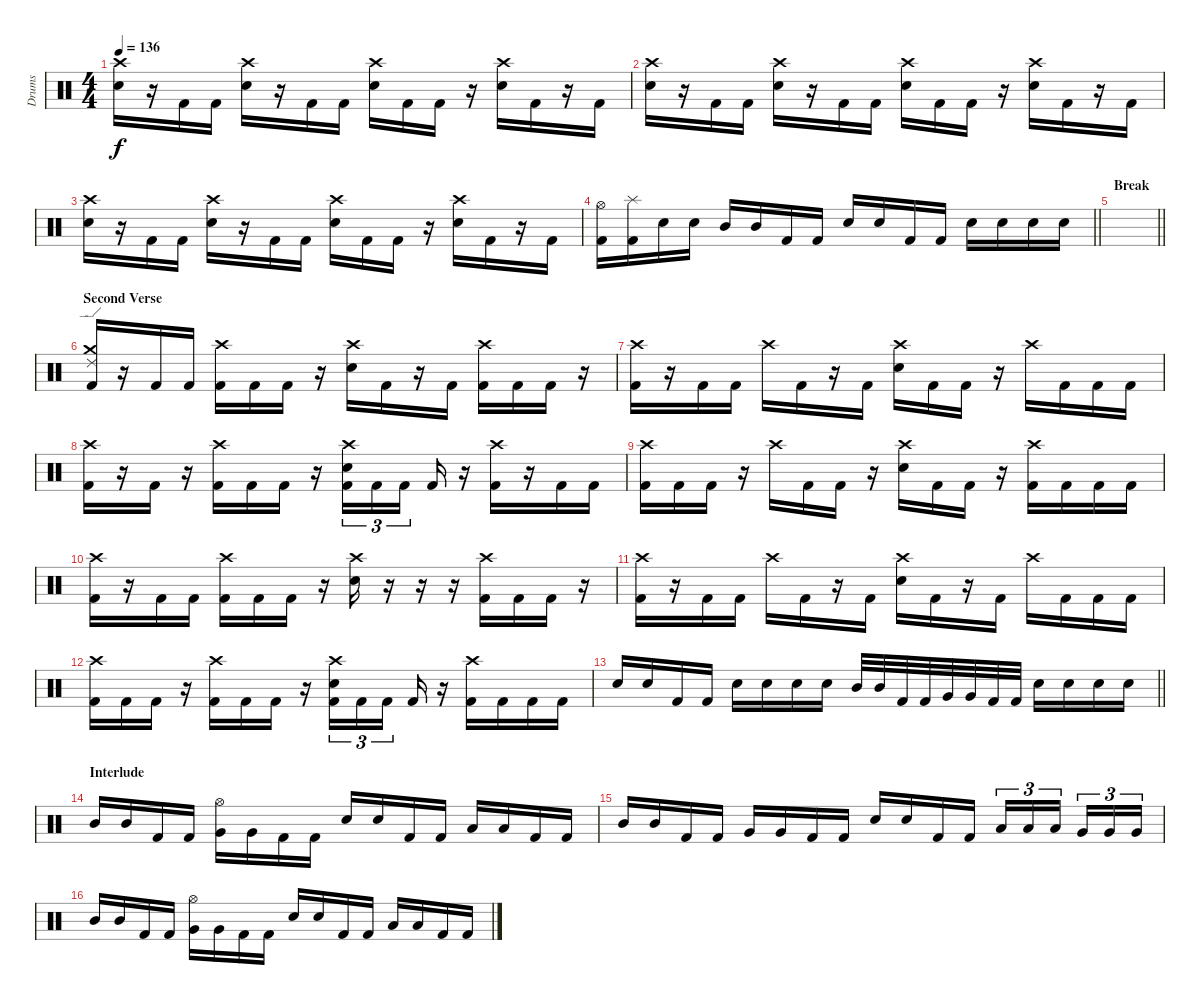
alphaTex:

\track ("Drums" "Drums") {instrument percussion}
\staff {score}
\articulation defaults
\ts (4 4)
\tempo 136
\clef neutral
\ks c
("Crash high (hit)" "Electric Snare (hit)").16{dy f} r.16 "Kick (hit) 2".16 "Kick (hit) 2".16 ("Crash high (hit)" "Electric Snare (hit)").16 r.16 "Kick (hit) 2".16 "Kick (hit) 2".16 ("Crash high (hit)" "Electric Snare (hit)").16 "Kick (hit) 2".16 "Kick (hit) 2".16 r.16 ("Crash high (hit)" "Electric Snare (hit)").16 "Kick (hit) 2".16 r.16 "Kick (hit) 2".16 |
("Crash high (hit)" "Electric Snare (hit)").16 r.16 "Kick (hit) 2".16 "Kick (hit) 2".16 ("Crash high (hit)" "Electric Snare (hit)").16 r.16 "Kick (hit) 2".16 "Kick (hit) 2".16 ("Crash high (hit)" "Electric Snare (hit)").16 "Kick (hit) 2".16 "Kick (hit) 2".16 r.16 ("Crash high (hit)" "Electric Snare (hit)").16 "Kick (hit) 2".16 r.16 "Kick (hit) 2".16 |
("Crash high (hit)" "Electric Snare (hit)").16 r.16 "Kick (hit) 2".16 "Kick (hit) 2".16 ("Crash high (hit)" "Electric Snare (hit)").16 r.16 "Kick (hit) 2".16 "Kick (hit) 2".16 ("Crash high (hit)" "Electric Snare (hit)").16 "Kick (hit) 2".16 "Kick (hit) 2".16 r.16 ("Crash high (hit)" "Electric Snare (hit)").16 "Kick (hit) 2".16 r.16 "Kick (hit) 2".16 |
\barLineRight lightlight
("Hi-Hat (open)" "Kick (hit) 2").16 ("Splash (hit)" "Kick (hit) 2").16 "Electric Snare (hit)".16 "Electric Snare (hit)".16 "Mid Tom (hit)".16 "Mid Tom (hit)".16 "Kick (hit) 2".16 "Kick (hit) 2".16 "Electric Snare (hit)".16 "Electric Snare (hit)".16 "Kick (hit) 2".16 "Kick (hit) 2".16 "Electric Snare (hit)".16 "Electric Snare (hit)".16 "Electric Snare (hit)".16 "Electric Snare (hit)".16 |
\section ("" "Break")
\barLineRight lightlight
|
\section ("" "Second Verse")
("Crash medium (hit)" "Ride (edge) 2" "Kick (hit) 2").16 r.16 "Kick (hit) 2".16 "Kick (hit) 2".16 ("Crash high (hit)" "Kick (hit) 2").16 "Kick (hit) 2".16 "Kick (hit) 2".16 r.16 ("Crash high (hit)" "Electric Snare (hit)").16 "Kick (hit) 2".16 r.16 "Kick (hit) 2".16 ("Crash high (hit)" "Kick (hit) 2").16 "Kick (hit) 2".16 "Kick (hit) 2".16 r.16 |
("Crash high (hit)" "Kick (hit) 2").16 r.16 "Kick (hit) 2".16 "Kick (hit) 2".16 "Crash high (hit)".16 "Kick (hit) 2".16 r.16 "Kick (hit) 2".16 ("Crash high (hit)" "Electric Snare (hit)").16 "Kick (hit) 2".16 "Kick (hit) 2".16 r.16 "Crash high (hit)".16 "Kick (hit) 2".16 "Kick (hit) 2".16 "Kick (hit) 2".16 |
("Crash high (hit)" "Kick (hit) 2").16 r.16 "Kick (hit) 2".16 r.16 ("Crash high (hit)" "Kick (hit) 2").16 "Kick (hit) 2".16 "Kick (hit) 2".16 r.16 ("Crash high (hit)" "Electric Snare (hit)" "Kick (hit) 2").16{tu (3 2)} "Kick (hit) 2".16{tu (3 2)} "Kick (hit) 2".16{tu (3 2) beam splitsecondary} "Kick (hit) 2".16 r.16 ("Crash high (hit)" "Kick (hit) 2").16 r.16 "Kick (hit) 2".16 "Kick (hit) 2".16 |
("Crash high (hit)" "Kick (hit) 2").16 "Kick (hit) 2".16 "Kick (hit) 2".16 r.16 "Crash high (hit)".16 "Kick (hit) 2".16 "Kick (hit) 2".16 r.16 ("Crash high (hit)" "Electric Snare (hit)").16 "Kick (hit) 2".16 "Kick (hit) 2".16 r.16 ("Crash high (hit)" "Kick (hit) 2").16 "Kick (hit) 2".16 "Kick (hit) 2".16 "Kick (hit) 2".16 |
("Crash high (hit)" "Kick (hit) 2").16 r.16 "Kick (hit) 2".16 "Kick (hit) 2".16 ("Crash high (hit)" "Kick (hit) 2").16 "Kick (hit) 2".16 "Kick (hit) 2".16 r.16 ("Crash high (hit)" "Electric Snare (hit)").16 r.16 r.16 r.16 ("Crash high (hit)" "Kick (hit) 2").16 "Kick (hit) 2".16 "Kick (hit) 2".16 r.16 |
("Crash high (hit)" "Kick (hit) 2").16 r.16 "Kick (hit) 2".16 "Kick (hit) 2".16 "Crash high (hit)".16 "Kick (hit) 2".16 r.16 "Kick (hit) 2".16 ("Crash high (hit)" "Electric Snare (hit)").16 "Kick (hit) 2".16 r.16 "Kick (hit) 2".16 "Crash high (hit)".16 "Kick (hit) 2".16 "Kick (hit) 2".16 "Kick (hit) 2".16 |
("Crash high (hit)" "Kick (hit) 2").16 "Kick (hit) 2".16 "Kick (hit) 2".16 r.16 ("Crash high (hit)" "Kick (hit) 2").16 "Kick (hit) 2".16 "Kick (hit) 2".16 r.16 ("Crash high (hit)" "Electric Snare (hit)" "Kick (hit) 2").16{tu (3 2)} "Kick (hit) 2".16{tu (3 2)} "Kick (hit) 2".16{tu (3 2) beam splitsecondary} "Kick (hit) 2".16 r.16 ("Crash high (hit)" "Kick (hit) 2").16 "Kick (hit) 2".16 "Kick (hit) 2".16 "Kick (hit) 2".16 |
\barLineRight lightlight "Electric Snare (hit)".16 "Electric Snare (hit)".16 "Kick (hit) 2".16 "Kick (hit) 2".16 "Electric Snare (hit)".16 "Electric Snare (hit)".16 "Electric Snare (hit)".16 "Electric Snare (hit)".16 "Mid Tom (hit)".32 "Mid Tom (hit)".32 "Kick (hit) 2".32 "Kick (hit) 2".32 "Very Low Tom (hit)".32 "Very Low Tom (hit)".32 "Kick (hit) 2".32 "Kick (hit) 2".32 "Electric Snare (hit)".16 "Electric Snare (hit)".16 "Electric Snare (hit)".16 "Electric Snare (hit)".16
|
\section ("" "Interlude ")
"Mid Tom (hit)".16 "Mid Tom (hit)".16 "Kick (hit) 2".16 "Kick (hit) 2".16 ("Hi-Hat (open)" "Very Low Tom (hit)").16 "Very Low Tom (hit)".16 "Kick (hit) 2".16 "Kick (hit) 2".16 "Electric Snare (hit)".16 "Electric Snare (hit)".16 "Kick (hit) 2".16 "Kick (hit) 2".16 "Low Floor Tom (hit)".16 "Low Floor Tom (hit)".16 "Kick (hit) 2".16 "Kick (hit) 2".16 |
"Mid Tom (hit)".16 "Mid Tom (hit)".16 "Kick (hit) 2".16 "Kick (hit) 2".16 "Very Low Tom (hit)".16 "Very Low Tom (hit)".16 "Kick (hit) 2".16 "Kick (hit) 2".16 "Electric Snare (hit)".16 "Electric Snare (hit)".16 "Kick (hit) 2".16 "Kick (hit) 2".16 "Low Tom (hit)".16{tu (3 2)} "Low Tom (hit)".16{tu (3 2)} "Low Tom (hit)".16{tu (3 2) beam splitsecondary} "Very Low Tom (hit)".16{tu (3 2)} "Very Low Tom (hit)".16{tu (3 2)} "Very Low Tom (hit)".16{tu (3 2)} |
"Mid Tom (hit)".16 "Mid Tom (hit)".16 "Kick (hit) 2".16 "Kick (hit) 2".16 ("Hi-Hat (open)" "Very Low Tom (hit)").16 "Very Low Tom (hit)".16 "Kick (hit) 2".16 "Kick (hit) 2".16 "Electric Snare (hit)".16 "Electric Snare (hit)".16 "Kick (hit) 2".16 "Kick (hit) 2".16 "Low Floor Tom (hit)".16 "Low Floor Tom (hit)".16 "Kick (hit) 2".16 "Kick (hit) 2".16
